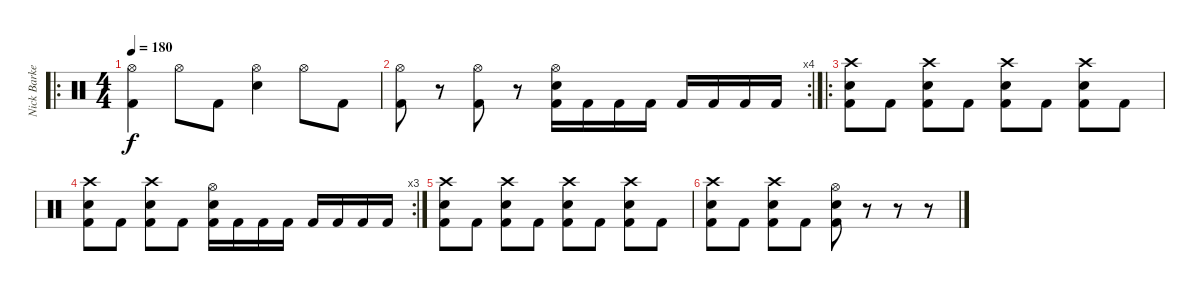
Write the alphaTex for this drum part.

\track ("Nick Barker" "Nick Barke") {instrument percussion}
\staff {score}
\articulation defaults
\ro
\ts (4 4)
\tempo 180
\clef neutral
\ks c
("Hi-Hat (open)" "Kick (hit) 2").4{dy f} "Hi-Hat (open)".8 "Kick (hit) 2".8 ("Hi-Hat (open)" "Snare (hit) 2").4 "Hi-Hat (open)".8 "Kick (hit) 2".8 |
\rc 4
("Hi-Hat (open)" "Kick (hit) 2").8 r.8 ("Hi-Hat (open)" "Kick (hit) 2").8 r.8 ("Hi-Hat (open)" "Snare (hit) 2" "Kick (hit) 2").16 "Kick (hit) 2".16 "Kick (hit) 2".16 "Kick (hit) 2".16 "Kick (hit) 2".16 "Kick (hit) 2".16 "Kick (hit) 2".16 "Kick (hit) 2".16 |
\ro
("Crash high (hit)" "Snare (hit) 2" "Kick (hit) 2").8 "Kick (hit) 2".8 ("Crash high (hit)" "Snare (hit) 2" "Kick (hit) 2").8 "Kick (hit) 2".8 ("Crash high (hit)" "Snare (hit) 2" "Kick (hit) 2").8 "Kick (hit) 2".8 ("Crash high (hit)" "Snare (hit) 2" "Kick (hit) 2").8 "Kick (hit) 2".8 |
\rc 3
("Crash high (hit)" "Snare (hit) 2" "Kick (hit) 2").8 "Kick (hit) 2".8 ("Crash high (hit)" "Snare (hit) 2" "Kick (hit) 2").8 "Kick (hit) 2".8 ("Hi-Hat (open)" "Snare (hit) 2" "Kick (hit) 2").16 "Kick (hit) 2".16 "Kick (hit) 2".16 "Kick (hit) 2".16 "Kick (hit) 2".16 "Kick (hit) 2".16 "Kick (hit) 2".16 "Kick (hit) 2".16 |
("Crash high (hit)" "Snare (hit) 2" "Kick (hit) 2").8 "Kick (hit) 2".8 ("Crash high (hit)" "Snare (hit) 2" "Kick (hit) 2").8 "Kick (hit) 2".8 ("Crash high (hit)" "Snare (hit) 2" "Kick (hit) 2").8 "Kick (hit) 2".8 ("Crash high (hit)" "Snare (hit) 2" "Kick (hit) 2").8 "Kick (hit) 2".8 |
("Crash high (hit)" "Snare (hit) 2" "Kick (hit) 2").8 "Kick (hit) 2".8 ("Crash high (hit)" "Snare (hit) 2" "Kick (hit) 2").8 "Kick (hit) 2".8 ("Hi-Hat (open)" "Snare (hit) 2" "Kick (hit) 2").8 r.8 r.8 r.8
